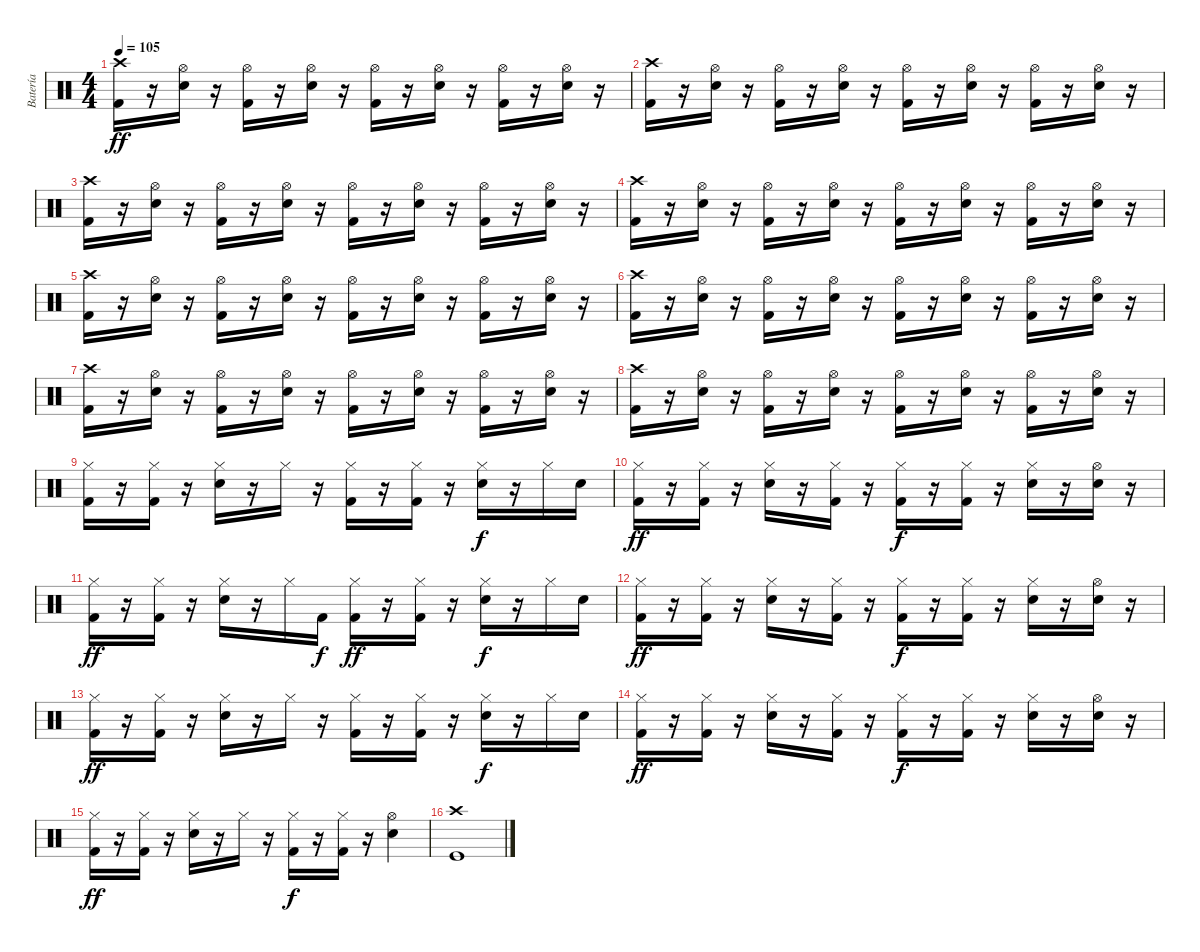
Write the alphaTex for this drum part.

\track ("Batería" "Batería") {instrument percussion}
\staff {score}
\articulation defaults
\ts (4 4)
\tempo 105
\clef neutral
\ks c
("Crash high (hit)" "Kick (hit) 2").16{dy ff} r.16 ("Hi-Hat (open)" "Electric Snare (hit)").16 r.16 ("Hi-Hat (open)" "Kick (hit) 2").16 r.16 ("Hi-Hat (open)" "Electric Snare (hit)").16 r.16 ("Hi-Hat (open)" "Kick (hit) 2").16 r.16 ("Hi-Hat (open)" "Electric Snare (hit)").16 r.16 ("Hi-Hat (open)" "Kick (hit) 2").16 r.16 ("Hi-Hat (open)" "Electric Snare (hit)").16 r.16 |
("Crash high (hit)" "Kick (hit) 2").16 r.16 ("Hi-Hat (open)" "Electric Snare (hit)").16 r.16 ("Hi-Hat (open)" "Kick (hit) 2").16 r.16 ("Hi-Hat (open)" "Electric Snare (hit)").16 r.16 ("Hi-Hat (open)" "Kick (hit) 2").16 r.16 ("Hi-Hat (open)" "Electric Snare (hit)").16 r.16 ("Hi-Hat (open)" "Kick (hit) 2").16 r.16 ("Hi-Hat (open)" "Electric Snare (hit)").16 r.16 |
("Crash high (hit)" "Kick (hit) 2").16 r.16 ("Hi-Hat (open)" "Electric Snare (hit)").16 r.16 ("Hi-Hat (open)" "Kick (hit) 2").16 r.16 ("Hi-Hat (open)" "Electric Snare (hit)").16 r.16 ("Hi-Hat (open)" "Kick (hit) 2").16 r.16 ("Hi-Hat (open)" "Electric Snare (hit)").16 r.16 ("Hi-Hat (open)" "Kick (hit) 2").16 r.16 ("Hi-Hat (open)" "Electric Snare (hit)").16 r.16 |
("Crash high (hit)" "Kick (hit) 2").16 r.16 ("Hi-Hat (open)" "Electric Snare (hit)").16 r.16 ("Hi-Hat (open)" "Kick (hit) 2").16 r.16 ("Hi-Hat (open)" "Electric Snare (hit)").16 r.16 ("Hi-Hat (open)" "Kick (hit) 2").16 r.16 ("Hi-Hat (open)" "Electric Snare (hit)").16 r.16 ("Hi-Hat (open)" "Kick (hit) 2").16 r.16 ("Hi-Hat (open)" "Electric Snare (hit)").16 r.16 |
("Crash high (hit)" "Kick (hit) 2").16 r.16 ("Hi-Hat (open)" "Electric Snare (hit)").16 r.16 ("Hi-Hat (open)" "Kick (hit) 2").16 r.16 ("Hi-Hat (open)" "Electric Snare (hit)").16 r.16 ("Hi-Hat (open)" "Kick (hit) 2").16 r.16 ("Hi-Hat (open)" "Electric Snare (hit)").16 r.16 ("Hi-Hat (open)" "Kick (hit) 2").16 r.16 ("Hi-Hat (open)" "Electric Snare (hit)").16 r.16 |
("Crash high (hit)" "Kick (hit) 2").16 r.16 ("Hi-Hat (open)" "Electric Snare (hit)").16 r.16 ("Hi-Hat (open)" "Kick (hit) 2").16 r.16 ("Hi-Hat (open)" "Electric Snare (hit)").16 r.16 ("Hi-Hat (open)" "Kick (hit) 2").16 r.16 ("Hi-Hat (open)" "Electric Snare (hit)").16 r.16 ("Hi-Hat (open)" "Kick (hit) 2").16 r.16 ("Hi-Hat (open)" "Electric Snare (hit)").16 r.16 |
("Crash high (hit)" "Kick (hit) 2").16 r.16 ("Hi-Hat (open)" "Electric Snare (hit)").16 r.16 ("Hi-Hat (open)" "Kick (hit) 2").16 r.16 ("Hi-Hat (open)" "Electric Snare (hit)").16 r.16 ("Hi-Hat (open)" "Kick (hit) 2").16 r.16 ("Hi-Hat (open)" "Electric Snare (hit)").16 r.16 ("Hi-Hat (open)" "Kick (hit) 2").16 r.16 ("Hi-Hat (open)" "Electric Snare (hit)").16 r.16 |
("Crash high (hit)" "Kick (hit) 2").16 r.16 ("Hi-Hat (open)" "Electric Snare (hit)").16 r.16 ("Hi-Hat (open)" "Kick (hit) 2").16 r.16 ("Hi-Hat (open)" "Electric Snare (hit)").16 r.16 ("Hi-Hat (open)" "Kick (hit) 2").16 r.16 ("Hi-Hat (open)" "Electric Snare (hit)").16 r.16 ("Hi-Hat (open)" "Kick (hit) 2").16 r.16 ("Hi-Hat (open)" "Electric Snare (hit)").16 r.16 |
("Hi-Hat (closed)" "Kick (hit) 2").16 r.16 ("Hi-Hat (closed)" "Kick (hit) 2").16 r.16 ("Hi-Hat (closed)" "Electric Snare (hit)").16 r.16 "Hi-Hat (closed)".16 r.16 ("Hi-Hat (closed)" "Kick (hit) 2").16 r.16 ("Hi-Hat (closed)" "Kick (hit) 2").16 r.16 ("Hi-Hat (closed)" "Electric Snare (hit)").16{dy f} r.16 "Hi-Hat (closed)".16 "Electric Snare (hit)".16 |
("Hi-Hat (closed)" "Kick (hit) 2").16{dy ff} r.16 ("Hi-Hat (closed)" "Kick (hit) 2").16 r.16 ("Hi-Hat (closed)" "Electric Snare (hit)").16 r.16 ("Hi-Hat (closed)" "Kick (hit) 2").16 r.16 ("Hi-Hat (closed)" "Kick (hit) 2").16{dy f} r.16 ("Hi-Hat (closed)" "Kick (hit) 2").16 r.16 ("Hi-Hat (closed)" "Electric Snare (hit)").16 r.16 ("Hi-Hat (open)" "Electric Snare (hit)").16 r.16 |
("Hi-Hat (closed)" "Kick (hit) 2").16{dy ff} r.16 ("Hi-Hat (closed)" "Kick (hit) 2").16 r.16 ("Hi-Hat (closed)" "Electric Snare (hit)").16 r.16 "Hi-Hat (closed)".16 "Kick (hit) 2".16{dy f} ("Hi-Hat (closed)" "Kick (hit) 2").16{dy ff} r.16 ("Hi-Hat (closed)" "Kick (hit) 2").16 r.16 ("Hi-Hat (closed)" "Electric Snare (hit)").16{dy f} r.16 "Hi-Hat (closed)".16 "Electric Snare (hit)".16 |
("Hi-Hat (closed)" "Kick (hit) 2").16{dy ff} r.16 ("Hi-Hat (closed)" "Kick (hit) 2").16 r.16 ("Hi-Hat (closed)" "Electric Snare (hit)").16 r.16 ("Hi-Hat (closed)" "Kick (hit) 2").16 r.16 ("Hi-Hat (closed)" "Kick (hit) 2").16{dy f} r.16 ("Hi-Hat (closed)" "Kick (hit) 2").16 r.16 ("Hi-Hat (closed)" "Electric Snare (hit)").16 r.16 ("Hi-Hat (open)" "Electric Snare (hit)").16 r.16 |
("Hi-Hat (closed)" "Kick (hit) 2").16{dy ff} r.16 ("Hi-Hat (closed)" "Kick (hit) 2").16 r.16 ("Hi-Hat (closed)" "Electric Snare (hit)").16 r.16 "Hi-Hat (closed)".16 r.16 ("Hi-Hat (closed)" "Kick (hit) 2").16 r.16 ("Hi-Hat (closed)" "Kick (hit) 2").16 r.16 ("Hi-Hat (closed)" "Electric Snare (hit)").16{dy f} r.16 "Hi-Hat (closed)".16 "Electric Snare (hit)".16 |
("Hi-Hat (closed)" "Kick (hit) 2").16{dy ff} r.16 ("Hi-Hat (closed)" "Kick (hit) 2").16 r.16 ("Hi-Hat (closed)" "Electric Snare (hit)").16 r.16 ("Hi-Hat (closed)" "Kick (hit) 2").16 r.16 ("Hi-Hat (closed)" "Kick (hit) 2").16{dy f} r.16 ("Hi-Hat (closed)" "Kick (hit) 2").16 r.16 ("Hi-Hat (closed)" "Electric Snare (hit)").16 r.16 ("Hi-Hat (open)" "Electric Snare (hit)").16 r.16 |
("Hi-Hat (closed)" "Kick (hit) 2").16{dy ff} r.16 ("Hi-Hat (closed)" "Kick (hit) 2").16 r.16 ("Hi-Hat (closed)" "Electric Snare (hit)").16 r.16 "Hi-Hat (closed)".16 r.16 ("Hi-Hat (closed)" "Kick (hit) 2").16{dy f} r.16 ("Hi-Hat (closed)" "Kick (hit) 2").16 r.16 ("Hi-Hat (open)" "Electric Snare (hit)").4 |
("Crash high (hit)" "Kick (hit)").1
